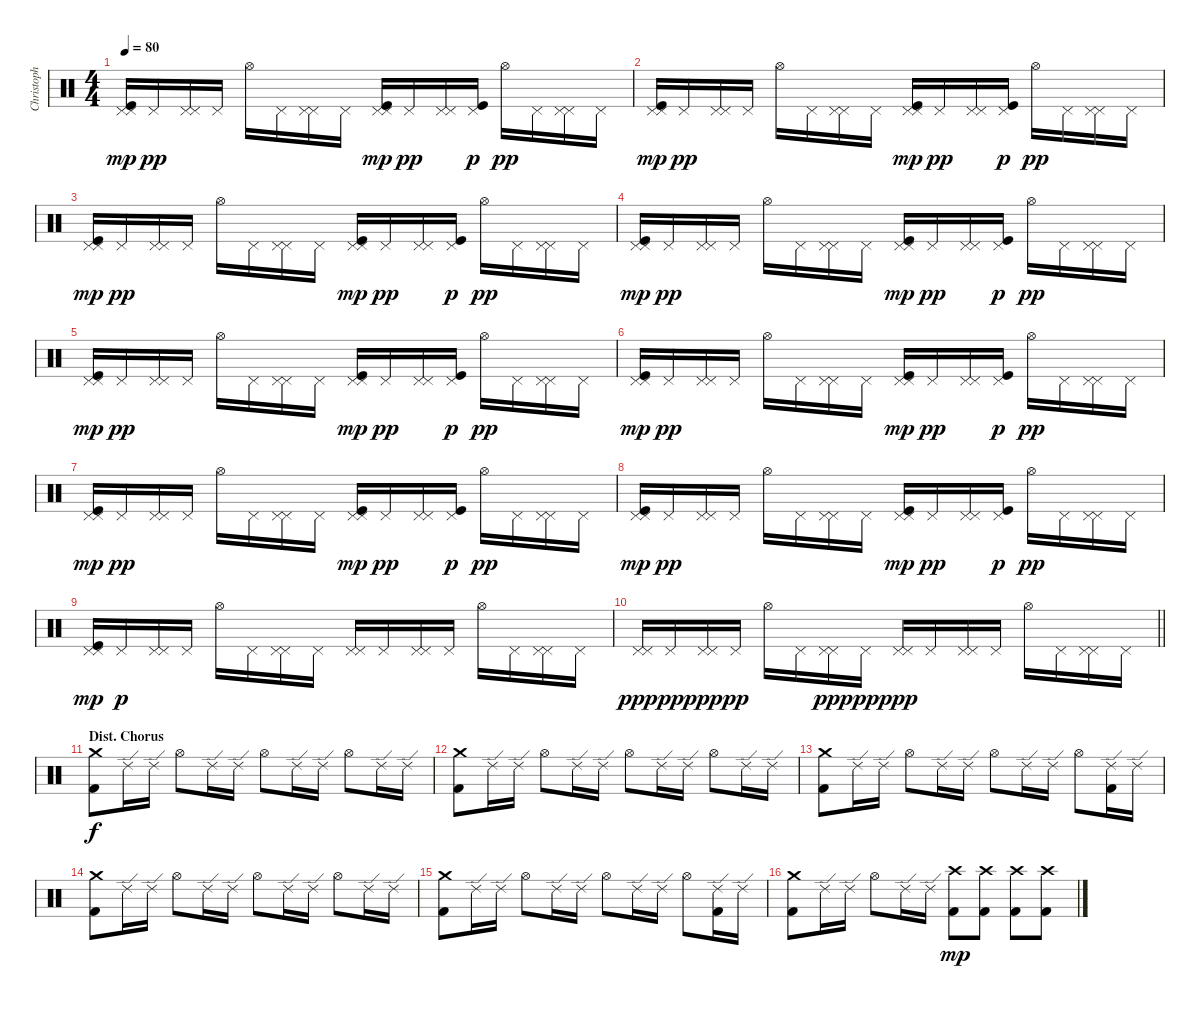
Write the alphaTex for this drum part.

\track ("Christoph Schneider // Drums" "Christoph ") {instrument percussion}
\staff {score}
\articulation defaults
\ts (4 4)
\tempo 80
\clef neutral
\ks c
("Pedal Hi-Hat (hit)" "Pedal Hi-Hat (hit)" "Kick (hit)").16{dy mp} "Pedal Hi-Hat (hit)".16{dy pp} ("Pedal Hi-Hat (hit)" "Pedal Hi-Hat (hit)").16 "Pedal Hi-Hat (hit)".16 "Hi-Hat (open)".16 "Pedal Hi-Hat (hit)".16 ("Pedal Hi-Hat (hit)" "Pedal Hi-Hat (hit)").16 "Pedal Hi-Hat (hit)".16 ("Pedal Hi-Hat (hit)" "Pedal Hi-Hat (hit)" "Kick (hit)").16{dy mp} "Pedal Hi-Hat (hit)".16{dy pp} ("Pedal Hi-Hat (hit)" "Pedal Hi-Hat (hit)").16 ("Pedal Hi-Hat (hit)" "Kick (hit)").16{dy p} "Hi-Hat (open)".16{dy pp} "Pedal Hi-Hat (hit)".16 ("Pedal Hi-Hat (hit)" "Pedal Hi-Hat (hit)").16 "Pedal Hi-Hat (hit)".16 |
("Pedal Hi-Hat (hit)" "Pedal Hi-Hat (hit)" "Kick (hit)").16{dy mp} "Pedal Hi-Hat (hit)".16{dy pp} ("Pedal Hi-Hat (hit)" "Pedal Hi-Hat (hit)").16 "Pedal Hi-Hat (hit)".16 "Hi-Hat (open)".16 "Pedal Hi-Hat (hit)".16 ("Pedal Hi-Hat (hit)" "Pedal Hi-Hat (hit)").16 "Pedal Hi-Hat (hit)".16 ("Pedal Hi-Hat (hit)" "Pedal Hi-Hat (hit)" "Kick (hit)").16{dy mp} "Pedal Hi-Hat (hit)".16{dy pp} ("Pedal Hi-Hat (hit)" "Pedal Hi-Hat (hit)").16 ("Pedal Hi-Hat (hit)" "Kick (hit)").16{dy p} "Hi-Hat (open)".16{dy pp} "Pedal Hi-Hat (hit)".16 ("Pedal Hi-Hat (hit)" "Pedal Hi-Hat (hit)").16 "Pedal Hi-Hat (hit)".16 |
("Pedal Hi-Hat (hit)" "Pedal Hi-Hat (hit)" "Kick (hit)").16{dy mp} "Pedal Hi-Hat (hit)".16{dy pp} ("Pedal Hi-Hat (hit)" "Pedal Hi-Hat (hit)").16 "Pedal Hi-Hat (hit)".16 "Hi-Hat (open)".16 "Pedal Hi-Hat (hit)".16 ("Pedal Hi-Hat (hit)" "Pedal Hi-Hat (hit)").16 "Pedal Hi-Hat (hit)".16 ("Pedal Hi-Hat (hit)" "Pedal Hi-Hat (hit)" "Kick (hit)").16{dy mp} "Pedal Hi-Hat (hit)".16{dy pp} ("Pedal Hi-Hat (hit)" "Pedal Hi-Hat (hit)").16 ("Pedal Hi-Hat (hit)" "Kick (hit)").16{dy p} "Hi-Hat (open)".16{dy pp} "Pedal Hi-Hat (hit)".16 ("Pedal Hi-Hat (hit)" "Pedal Hi-Hat (hit)").16 "Pedal Hi-Hat (hit)".16 |
("Pedal Hi-Hat (hit)" "Pedal Hi-Hat (hit)" "Kick (hit)").16{dy mp} "Pedal Hi-Hat (hit)".16{dy pp} ("Pedal Hi-Hat (hit)" "Pedal Hi-Hat (hit)").16 "Pedal Hi-Hat (hit)".16 "Hi-Hat (open)".16 "Pedal Hi-Hat (hit)".16 ("Pedal Hi-Hat (hit)" "Pedal Hi-Hat (hit)").16 "Pedal Hi-Hat (hit)".16 ("Pedal Hi-Hat (hit)" "Pedal Hi-Hat (hit)" "Kick (hit)").16{dy mp} "Pedal Hi-Hat (hit)".16{dy pp} ("Pedal Hi-Hat (hit)" "Pedal Hi-Hat (hit)").16 ("Pedal Hi-Hat (hit)" "Kick (hit)").16{dy p} "Hi-Hat (open)".16{dy pp} "Pedal Hi-Hat (hit)".16 ("Pedal Hi-Hat (hit)" "Pedal Hi-Hat (hit)").16 "Pedal Hi-Hat (hit)".16 |
("Pedal Hi-Hat (hit)" "Pedal Hi-Hat (hit)" "Kick (hit)").16{dy mp} "Pedal Hi-Hat (hit)".16{dy pp} ("Pedal Hi-Hat (hit)" "Pedal Hi-Hat (hit)").16 "Pedal Hi-Hat (hit)".16 "Hi-Hat (open)".16 "Pedal Hi-Hat (hit)".16 ("Pedal Hi-Hat (hit)" "Pedal Hi-Hat (hit)").16 "Pedal Hi-Hat (hit)".16 ("Pedal Hi-Hat (hit)" "Pedal Hi-Hat (hit)" "Kick (hit)").16{dy mp} "Pedal Hi-Hat (hit)".16{dy pp} ("Pedal Hi-Hat (hit)" "Pedal Hi-Hat (hit)").16 ("Pedal Hi-Hat (hit)" "Kick (hit)").16{dy p} "Hi-Hat (open)".16{dy pp} "Pedal Hi-Hat (hit)".16 ("Pedal Hi-Hat (hit)" "Pedal Hi-Hat (hit)").16 "Pedal Hi-Hat (hit)".16 |
("Pedal Hi-Hat (hit)" "Pedal Hi-Hat (hit)" "Kick (hit)").16{dy mp} "Pedal Hi-Hat (hit)".16{dy pp} ("Pedal Hi-Hat (hit)" "Pedal Hi-Hat (hit)").16 "Pedal Hi-Hat (hit)".16 "Hi-Hat (open)".16 "Pedal Hi-Hat (hit)".16 ("Pedal Hi-Hat (hit)" "Pedal Hi-Hat (hit)").16 "Pedal Hi-Hat (hit)".16 ("Pedal Hi-Hat (hit)" "Pedal Hi-Hat (hit)" "Kick (hit)").16{dy mp} "Pedal Hi-Hat (hit)".16{dy pp} ("Pedal Hi-Hat (hit)" "Pedal Hi-Hat (hit)").16 ("Pedal Hi-Hat (hit)" "Kick (hit)").16{dy p} "Hi-Hat (open)".16{dy pp} "Pedal Hi-Hat (hit)".16 ("Pedal Hi-Hat (hit)" "Pedal Hi-Hat (hit)").16 "Pedal Hi-Hat (hit)".16 |
("Pedal Hi-Hat (hit)" "Pedal Hi-Hat (hit)" "Kick (hit)").16{dy mp} "Pedal Hi-Hat (hit)".16{dy pp} ("Pedal Hi-Hat (hit)" "Pedal Hi-Hat (hit)").16 "Pedal Hi-Hat (hit)".16 "Hi-Hat (open)".16 "Pedal Hi-Hat (hit)".16 ("Pedal Hi-Hat (hit)" "Pedal Hi-Hat (hit)").16 "Pedal Hi-Hat (hit)".16 ("Pedal Hi-Hat (hit)" "Pedal Hi-Hat (hit)" "Kick (hit)").16{dy mp} "Pedal Hi-Hat (hit)".16{dy pp} ("Pedal Hi-Hat (hit)" "Pedal Hi-Hat (hit)").16 ("Pedal Hi-Hat (hit)" "Kick (hit)").16{dy p} "Hi-Hat (open)".16{dy pp} "Pedal Hi-Hat (hit)".16 ("Pedal Hi-Hat (hit)" "Pedal Hi-Hat (hit)").16 "Pedal Hi-Hat (hit)".16 |
("Pedal Hi-Hat (hit)" "Pedal Hi-Hat (hit)" "Kick (hit)").16{dy mp} "Pedal Hi-Hat (hit)".16{dy pp} ("Pedal Hi-Hat (hit)" "Pedal Hi-Hat (hit)").16 "Pedal Hi-Hat (hit)".16 "Hi-Hat (open)".16 "Pedal Hi-Hat (hit)".16 ("Pedal Hi-Hat (hit)" "Pedal Hi-Hat (hit)").16 "Pedal Hi-Hat (hit)".16 ("Pedal Hi-Hat (hit)" "Pedal Hi-Hat (hit)" "Kick (hit)").16{dy mp} "Pedal Hi-Hat (hit)".16{dy pp} ("Pedal Hi-Hat (hit)" "Pedal Hi-Hat (hit)").16 ("Pedal Hi-Hat (hit)" "Kick (hit)").16{dy p} "Hi-Hat (open)".16{dy pp} "Pedal Hi-Hat (hit)".16 ("Pedal Hi-Hat (hit)" "Pedal Hi-Hat (hit)").16 "Pedal Hi-Hat (hit)".16 |
("Pedal Hi-Hat (hit)" "Pedal Hi-Hat (hit)" "Kick (hit)").16{dy mp} "Pedal Hi-Hat (hit)".16{dy p} ("Pedal Hi-Hat (hit)" "Pedal Hi-Hat (hit)").16 "Pedal Hi-Hat (hit)".16 "Hi-Hat (open)".16 "Pedal Hi-Hat (hit)".16 ("Pedal Hi-Hat (hit)" "Pedal Hi-Hat (hit)").16 "Pedal Hi-Hat (hit)".16 ("Pedal Hi-Hat (hit)" "Pedal Hi-Hat (hit)").16 "Pedal Hi-Hat (hit)".16 ("Pedal Hi-Hat (hit)" "Pedal Hi-Hat (hit)").16 "Pedal Hi-Hat (hit)".16 "Hi-Hat (open)".16 "Pedal Hi-Hat (hit)".16 ("Pedal Hi-Hat (hit)" "Pedal Hi-Hat (hit)").16 "Pedal Hi-Hat (hit)".16 |
\barLineRight lightlight
("Pedal Hi-Hat (hit)" "Pedal Hi-Hat (hit)").16{dy ppp} "Pedal Hi-Hat (hit)".16{dy pp} ("Pedal Hi-Hat (hit)" "Pedal Hi-Hat (hit)").16{dy ppp} "Pedal Hi-Hat (hit)".16{dy pp} "Hi-Hat (open)".16 "Pedal Hi-Hat (hit)".16 ("Pedal Hi-Hat (hit)" "Pedal Hi-Hat (hit)").16{dy ppp} "Pedal Hi-Hat (hit)".16{dy pp} ("Pedal Hi-Hat (hit)" "Pedal Hi-Hat (hit)").16{dy ppp} "Pedal Hi-Hat (hit)".16 ("Pedal Hi-Hat (hit)" "Pedal Hi-Hat (hit)").16 "Pedal Hi-Hat (hit)".16 "Hi-Hat (open)".16 "Pedal Hi-Hat (hit)".16 ("Pedal Hi-Hat (hit)" "Pedal Hi-Hat (hit)").16 "Pedal Hi-Hat (hit)".16 |
\section ("" "Dist. Chorus")
("Crash medium (hit)" "Kick (hit) 2").8{dy f} "Ride (edge) 2".16 "Ride (edge) 2".16 "Hi-Hat (open)".8 "Ride (edge) 2".16 "Ride (edge) 2".16 "Hi-Hat (open)".8 "Ride (edge) 2".16 "Ride (edge) 2".16 "Hi-Hat (open)".8 "Ride (edge) 2".16 "Ride (edge) 2".16 |
("Crash medium (hit)" "Kick (hit) 2").8 "Ride (edge) 2".16 "Ride (edge) 2".16 "Hi-Hat (open)".8 "Ride (edge) 2".16 "Ride (edge) 2".16 "Hi-Hat (open)".8 "Ride (edge) 2".16 "Ride (edge) 2".16 "Hi-Hat (open)".8 "Ride (edge) 2".16 "Ride (edge) 2".16 |
("Crash medium (hit)" "Kick (hit) 2").8 "Ride (edge) 2".16 "Ride (edge) 2".16 "Hi-Hat (open)".8 "Ride (edge) 2".16 "Ride (edge) 2".16 "Hi-Hat (open)".8 "Ride (edge) 2".16 "Ride (edge) 2".16 "Hi-Hat (open)".8 ("Ride (edge) 2" "Kick (hit) 2").16 "Ride (edge) 2".16 |
("Crash medium (hit)" "Kick (hit) 2").8 "Ride (edge) 2".16 "Ride (edge) 2".16 "Hi-Hat (open)".8 "Ride (edge) 2".16 "Ride (edge) 2".16 "Hi-Hat (open)".8 "Ride (edge) 2".16 "Ride (edge) 2".16 "Hi-Hat (open)".8 "Ride (edge) 2".16 "Ride (edge) 2".16 |
("Crash medium (hit)" "Kick (hit) 2").8 "Ride (edge) 2".16 "Ride (edge) 2".16 "Hi-Hat (open)".8 "Ride (edge) 2".16 "Ride (edge) 2".16 "Hi-Hat (open)".8 "Ride (edge) 2".16 "Ride (edge) 2".16 "Hi-Hat (open)".8 ("Ride (edge) 2" "Kick (hit) 2").16 "Ride (edge) 2".16 |
("Crash medium (hit)" "Kick (hit) 2").8 "Ride (edge) 2".16 "Ride (edge) 2".16 "Hi-Hat (open)".8 "Ride (edge) 2".16 "Ride (edge) 2".16 ("Crash high (hit)" "Kick (hit) 2").8{dy mp} ("Crash high (hit)" "Kick (hit) 2").8 ("Crash high (hit)" "Kick (hit) 2").8 ("Crash high (hit)" "Kick (hit) 2").8
